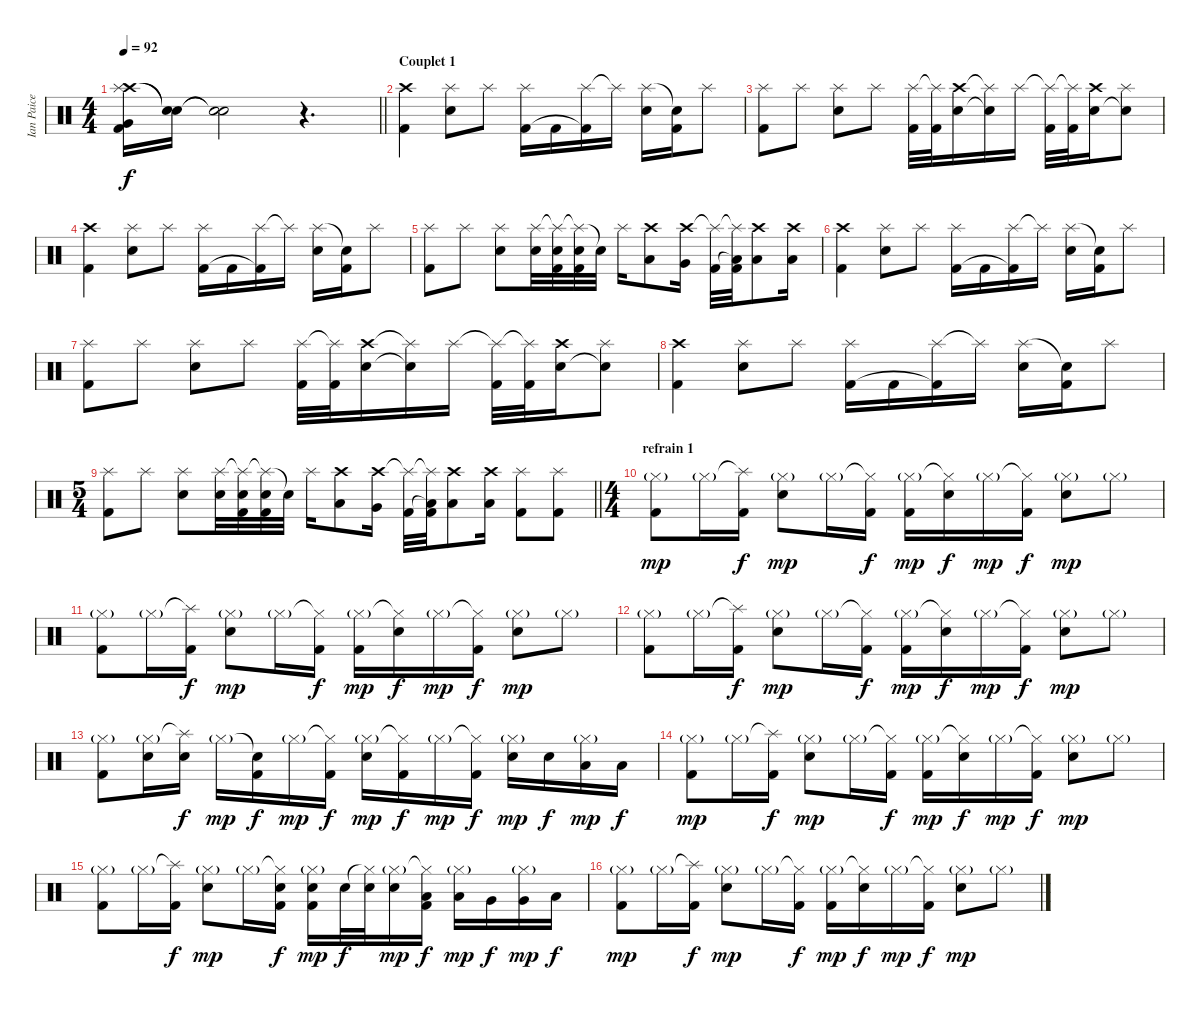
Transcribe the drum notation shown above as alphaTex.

\track ("Ian Paice" "Ian Paice") {instrument percussion}
\staff {score}
\articulation defaults
\ts (4 4)
\tempo 92
\clef neutral
\barLineRight lightlight
\ks c
("Crash high (hit)" "Splash (hit)" "Very Low Tom (hit)" "Kick (hit) 2").16{dy f} ("Snare (hit)"{t} "Snare (hit)"{t}).16 ("Snare (hit)"{t} "Snare (hit)"{t}).2 r.4{d} |
\section ("" "Couplet 1")
("Crash high (hit)" "Kick (hit) 2").4 ("Splash (hit)" "Snare (hit) 2").8 "Splash (hit)".8 ("Splash (hit)" "Kick (hit) 2").16 "Kick (hit) 2".16 ("Splash (hit)" "Kick (hit) 2"{t}).16 "Splash (hit)"{t}.16 ("Splash (hit)" "Snare (hit) 2").16 ("Snare (hit)"{t} "Kick (hit) 2").16 "Splash (hit)".8 |
("Splash (hit)" "Kick (hit) 2").8 "Splash (hit)".8 ("Splash (hit)" "Snare (hit) 2").8 "Splash (hit)".8 ("Splash (hit)" "Kick (hit) 2").32 ("Splash (hit)"{t} "Kick (hit) 2").32 ("Crash high (hit)" "Snare (hit) 2").16 ("Splash (hit)"{t} "Snare (hit)"{t}).16 "Splash (hit)".16 ("Splash (hit)"{t} "Kick (hit) 2").32 ("Splash (hit)"{t} "Kick (hit) 2").32 ("Crash high (hit)" "Snare (hit) 2").16 ("Splash (hit)" "Snare (hit)"{t}).8 |
("Crash high (hit)" "Kick (hit) 2").4 ("Splash (hit)" "Snare (hit) 2").8 "Splash (hit)".8 ("Splash (hit)" "Kick (hit) 2").16 "Kick (hit) 2".16 ("Splash (hit)" "Kick (hit) 2"{t}).16 "Splash (hit)"{t}.16 ("Splash (hit)" "Snare (hit) 2").16 ("Snare (hit)"{t} "Kick (hit) 2").16 "Splash (hit)".8 |
("Splash (hit)" "Kick (hit) 2").8 "Splash (hit)".8 ("Splash (hit)" "Snare (hit) 2").8 ("Splash (hit)" "Snare (hit) 2").32 ("Splash (hit)"{t} "Snare (hit) 2" "Kick (hit) 2").32 ("Splash (hit)"{t} "Snare (hit) 2" "Kick (hit) 2").32 "Snare (hit)"{t}.32 "Splash (hit)".16 ("Crash high (hit)" "Low Floor Tom (hit)").8 ("Crash high (hit)" "Very Low Tom (hit)").16 ("Splash (hit)"{t} "Kick (hit) 2").32 ("Splash (hit)"{t} "Low Tom (hit)"{t} "Kick (hit) 2").32 ("Crash high (hit)" "Low Tom (hit)").8 ("Crash high (hit)" "Low Tom (hit)").16 |
("Crash high (hit)" "Kick (hit) 2").4 ("Splash (hit)" "Snare (hit) 2").8 "Splash (hit)".8 ("Splash (hit)" "Kick (hit) 2").16 "Kick (hit) 2".16 ("Splash (hit)" "Kick (hit) 2"{t}).16 "Splash (hit)"{t}.16 ("Splash (hit)" "Snare (hit) 2").16 ("Snare (hit)"{t} "Kick (hit) 2").16 "Splash (hit)".8 |
("Splash (hit)" "Kick (hit) 2").8 "Splash (hit)".8 ("Splash (hit)" "Snare (hit) 2").8 "Splash (hit)".8 ("Splash (hit)" "Kick (hit) 2").32 ("Splash (hit)"{t} "Kick (hit) 2").32 ("Crash high (hit)" "Snare (hit) 2").16 ("Splash (hit)"{t} "Snare (hit)"{t}).16 "Splash (hit)".16 ("Splash (hit)"{t} "Kick (hit) 2").32 ("Splash (hit)"{t} "Kick (hit) 2").32 ("Crash high (hit)" "Snare (hit) 2").16 ("Splash (hit)" "Snare (hit)"{t}).8 |
("Crash high (hit)" "Kick (hit) 2").4 ("Splash (hit)" "Snare (hit) 2").8 "Splash (hit)".8 ("Splash (hit)" "Kick (hit) 2").16 "Kick (hit) 2".16 ("Splash (hit)" "Kick (hit) 2"{t}).16 "Splash (hit)"{t}.16 ("Splash (hit)" "Snare (hit) 2").16 ("Snare (hit)"{t} "Kick (hit) 2").16 "Splash (hit)".8 |
\ts (5 4)
\barLineRight lightlight
("Splash (hit)" "Kick (hit) 2").8 "Splash (hit)".8 ("Splash (hit)" "Snare (hit) 2").8 ("Splash (hit)" "Snare (hit) 2").32 ("Splash (hit)"{t} "Snare (hit) 2" "Kick (hit) 2").32 ("Splash (hit)"{t} "Snare (hit) 2" "Kick (hit) 2").32 "Snare (hit)"{t}.32 "Splash (hit)".16 ("Crash high (hit)" "Low Floor Tom (hit)").8 ("Crash high (hit)" "Very Low Tom (hit)").16 ("Splash (hit)"{t} "Kick (hit) 2").32 ("Splash (hit)"{t} "Low Tom (hit)"{t} "Kick (hit) 2").32 ("Crash high (hit)" "Low Tom (hit)").8 ("Crash high (hit)" "Low Tom (hit)").16 ("Splash (hit)" "Kick (hit) 2").8 ("Splash (hit)" "Kick (hit) 2").8 |
\ts (4 4)
\section ("" "refrain 1")
("Hi-Hat (closed)"{g} "Kick (hit) 2").8{dy mp} "Hi-Hat (closed)"{g}.16 ("Splash (hit)"{t} "Kick (hit) 2").16{dy f} ("Hi-Hat (closed)"{g} "Snare (hit) 2").8{dy mp} "Hi-Hat (closed)"{g}.16 ("Hi-Hat (closed)"{t} "Kick (hit) 2").16{dy f} ("Hi-Hat (closed)"{g} "Kick (hit) 2").16{dy mp} ("Hi-Hat (closed)"{t} "Snare (hit) 2").16{dy f} "Hi-Hat (closed)"{g}.16{dy mp} ("Hi-Hat (closed)"{t} "Kick (hit) 2").16{dy f} ("Hi-Hat (closed)"{g} "Snare (hit) 2").8{dy mp} "Hi-Hat (closed)"{g}.8 |
("Hi-Hat (closed)"{g} "Kick (hit) 2").8 "Hi-Hat (closed)"{g}.16 ("Splash (hit)"{t} "Kick (hit) 2").16{dy f} ("Hi-Hat (closed)"{g} "Snare (hit) 2").8{dy mp} "Hi-Hat (closed)"{g}.16 ("Hi-Hat (closed)"{t} "Kick (hit) 2").16{dy f} ("Hi-Hat (closed)"{g} "Kick (hit) 2").16{dy mp} ("Hi-Hat (closed)"{t} "Snare (hit) 2").16{dy f} "Hi-Hat (closed)"{g}.16{dy mp} ("Hi-Hat (closed)"{t} "Kick (hit) 2").16{dy f} ("Hi-Hat (closed)"{g} "Snare (hit) 2").8{dy mp} "Hi-Hat (closed)"{g}.8 |
("Hi-Hat (closed)"{g} "Kick (hit) 2").8 "Hi-Hat (closed)"{g}.16 ("Splash (hit)"{t} "Kick (hit) 2").16{dy f} ("Hi-Hat (closed)"{g} "Snare (hit) 2").8{dy mp} "Hi-Hat (closed)"{g}.16 ("Hi-Hat (closed)"{t} "Kick (hit) 2").16{dy f} ("Hi-Hat (closed)"{g} "Kick (hit) 2").16{dy mp} ("Hi-Hat (closed)"{t} "Snare (hit) 2").16{dy f} "Hi-Hat (closed)"{g}.16{dy mp} ("Hi-Hat (closed)"{t} "Kick (hit) 2").16{dy f} ("Hi-Hat (closed)"{g} "Snare (hit) 2").8{dy mp} "Hi-Hat (closed)"{g}.8 |
("Hi-Hat (closed)"{g} "Kick (hit) 2").8 ("Hi-Hat (closed)"{g} "Snare (hit) 2").16 ("Splash (hit)"{t} "Snare (hit) 2").16{dy f} "Hi-Hat (closed)"{g}.16{dy mp} ("Snare (hit)"{t} "Kick (hit) 2").16{dy f} "Hi-Hat (closed)"{g}.16{dy mp} ("Hi-Hat (closed)"{t} "Kick (hit) 2").16{dy f} ("Hi-Hat (closed)"{g} "Snare (hit) 2").16{dy mp} ("Hi-Hat (closed)"{t} "Kick (hit) 2").16{dy f} "Hi-Hat (closed)"{g}.16{dy mp} ("Hi-Hat (closed)"{t} "Kick (hit) 2").16{dy f} ("Hi-Hat (closed)"{g} "Snare (hit) 2").16{dy mp} "Snare (hit) 2".16{dy f} ("Hi-Hat (closed)"{g} "Low Tom (hit)").16{dy mp} "Low Tom (hit)".16{dy f} |
("Hi-Hat (closed)"{g} "Kick (hit) 2").8{dy mp} "Hi-Hat (closed)"{g}.16 ("Splash (hit)"{t} "Kick (hit) 2").16{dy f} ("Hi-Hat (closed)"{g} "Snare (hit) 2").8{dy mp} "Hi-Hat (closed)"{g}.16 ("Hi-Hat (closed)"{t} "Kick (hit) 2").16{dy f} ("Hi-Hat (closed)"{g} "Kick (hit) 2").16{dy mp} ("Hi-Hat (closed)"{t} "Snare (hit) 2").16{dy f} "Hi-Hat (closed)"{g}.16{dy mp} ("Hi-Hat (closed)"{t} "Kick (hit) 2").16{dy f} ("Hi-Hat (closed)"{g} "Snare (hit) 2").8{dy mp} "Hi-Hat (closed)"{g}.8 |
("Hi-Hat (closed)"{g} "Kick (hit) 2").8 "Hi-Hat (closed)"{g}.16 ("Splash (hit)"{t} "Kick (hit) 2").16{dy f} ("Hi-Hat (closed)"{g} "Snare (hit) 2").8{dy mp} "Hi-Hat (closed)"{g}.16 ("Hi-Hat (closed)"{t} "Snare (hit) 2" "Kick (hit) 2").16{dy f} ("Hi-Hat (closed)"{g} "Snare (hit) 2" "Kick (hit) 2").16{dy mp} "Snare (hit) 2".32{dy f} ("Hi-Hat (closed)"{t} "Snare (hit) 2").32 ("Hi-Hat (closed)"{g} "Snare (hit) 2").16{dy mp} ("Hi-Hat (closed)"{t} "Low Tom (hit)" "Kick (hit) 2").16{dy f} ("Hi-Hat (closed)"{g} "Low Tom (hit)").16{dy mp} "Very Low Tom (hit)".16{dy f} ("Hi-Hat (closed)"{g} "Very Low Tom (hit)").16{dy mp} "Low Floor Tom (hit)".16{dy f} |
("Hi-Hat (closed)"{g} "Kick (hit) 2").8{dy mp} "Hi-Hat (closed)"{g}.16 ("Splash (hit)"{t} "Kick (hit) 2").16{dy f} ("Hi-Hat (closed)"{g} "Snare (hit) 2").8{dy mp} "Hi-Hat (closed)"{g}.16 ("Hi-Hat (closed)"{t} "Kick (hit) 2").16{dy f} ("Hi-Hat (closed)"{g} "Kick (hit) 2").16{dy mp} ("Hi-Hat (closed)"{t} "Snare (hit) 2").16{dy f} "Hi-Hat (closed)"{g}.16{dy mp} ("Hi-Hat (closed)"{t} "Kick (hit) 2").16{dy f} ("Hi-Hat (closed)"{g} "Snare (hit) 2").8{dy mp} "Hi-Hat (closed)"{g}.8
